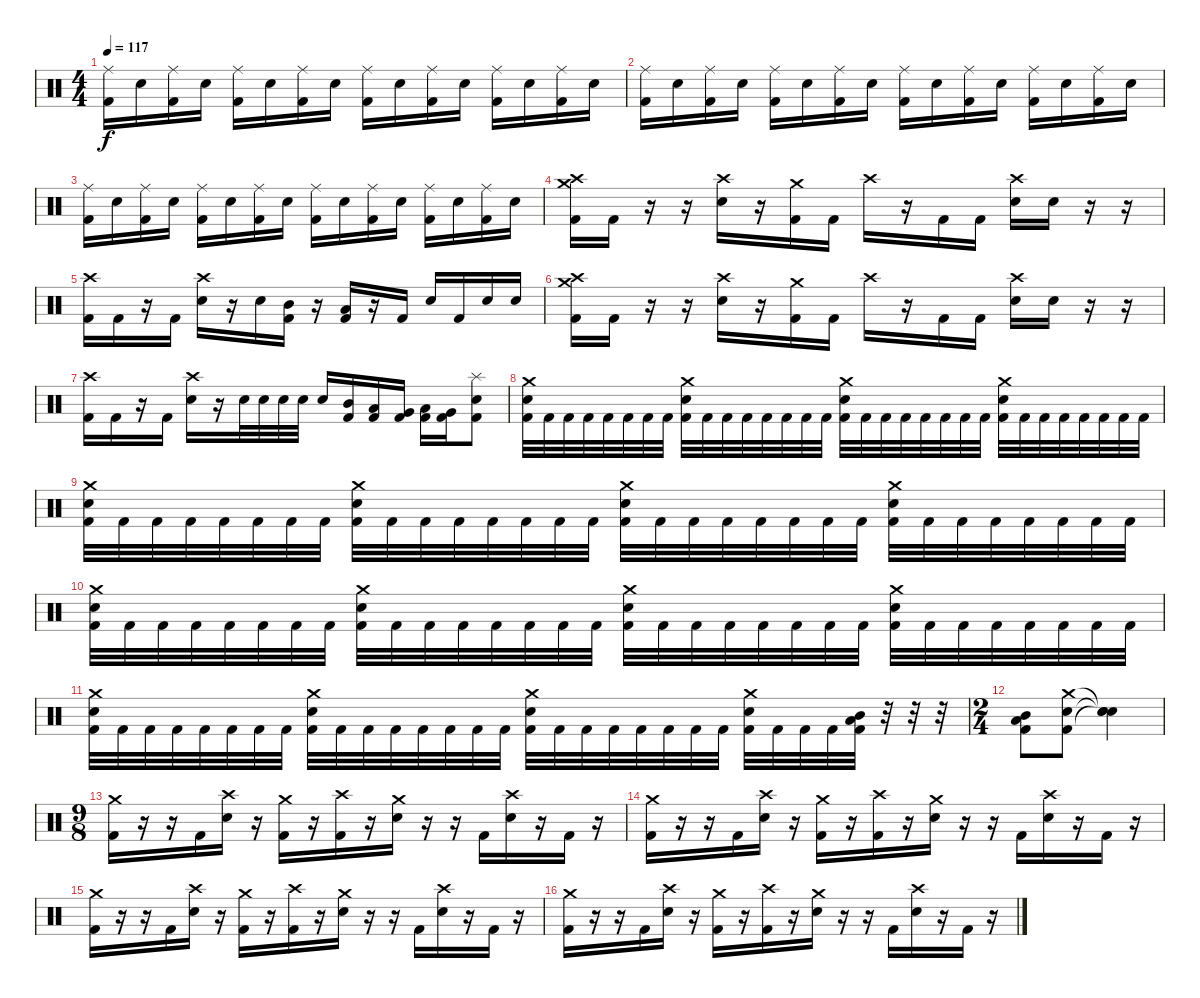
\track "" {instrument percussion}
\staff {score}
\articulation defaults
\ts (4 4)
\tempo 117
\clef neutral
\ks c
("Kick (hit) 2" "Ride (middle)").16{dy f} "Electric Snare (hit)".16 ("Kick (hit) 2" "Ride (middle)").16 "Electric Snare (hit)".16 ("Kick (hit) 2" "Ride (middle)").16 "Electric Snare (hit)".16 ("Kick (hit) 2" "Ride (middle)").16 "Electric Snare (hit)".16 ("Kick (hit) 2" "Ride (middle)").16 "Electric Snare (hit)".16 ("Kick (hit) 2" "Ride (middle)").16 "Electric Snare (hit)".16 ("Kick (hit) 2" "Ride (middle)").16 "Electric Snare (hit)".16 ("Kick (hit) 2" "Ride (middle)").16 "Electric Snare (hit)".16 |
("Kick (hit) 2" "Ride (middle)").16 "Electric Snare (hit)".16 ("Kick (hit) 2" "Ride (middle)").16 "Electric Snare (hit)".16 ("Kick (hit) 2" "Ride (middle)").16 "Electric Snare (hit)".16 ("Kick (hit) 2" "Ride (middle)").16 "Electric Snare (hit)".16 ("Kick (hit) 2" "Ride (middle)").16 "Electric Snare (hit)".16 ("Kick (hit) 2" "Ride (middle)").16 "Electric Snare (hit)".16 ("Kick (hit) 2" "Ride (middle)").16 "Electric Snare (hit)".16 ("Kick (hit) 2" "Ride (middle)").16 "Electric Snare (hit)".16 |
("Kick (hit) 2" "Ride (middle)").16 "Electric Snare (hit)".16 ("Kick (hit) 2" "Ride (middle)").16 "Electric Snare (hit)".16 ("Kick (hit) 2" "Ride (middle)").16 "Electric Snare (hit)".16 ("Kick (hit) 2" "Ride (middle)").16 "Electric Snare (hit)".16 ("Kick (hit) 2" "Ride (middle)").16 "Electric Snare (hit)".16 ("Kick (hit) 2" "Ride (middle)").16 "Electric Snare (hit)".16 ("Kick (hit) 2" "Ride (middle)").16 "Electric Snare (hit)".16 ("Kick (hit) 2" "Ride (middle)").16 "Electric Snare (hit)".16 |
("Kick (hit) 2" "Crash high (hit)" "Crash medium (hit)").16 "Kick (hit) 2".16 r.16 r.16 ("Electric Snare (hit)" "Crash high (hit)").16 r.16 ("Kick (hit) 2" "Crash medium (hit)").16 "Kick (hit) 2".16 "Crash high (hit)".16 r.16 "Kick (hit) 2".16 "Kick (hit) 2".16 ("Electric Snare (hit)" "Crash high (hit)").16 "Electric Snare (hit)".16 r.16 r.16 |
("Kick (hit) 2" "Crash high (hit)").16 "Kick (hit) 2".16 r.16 "Kick (hit) 2".16 ("Electric Snare (hit)" "Crash high (hit)").16 r.16 "Electric Snare (hit)".16 ("Mid Tom (hit)" "Kick (hit) 2").16 r.16 ("Low Tom (hit)" "Kick (hit) 2").16 r.16 "Kick (hit) 2".16 "Electric Snare (hit)".16 "Kick (hit) 2".16 "Electric Snare (hit)".16 "Electric Snare (hit)".16 |
("Kick (hit) 2" "Crash high (hit)" "Crash medium (hit)").16 "Kick (hit) 2".16 r.16 r.16 ("Electric Snare (hit)" "Crash high (hit)").16 r.16 ("Kick (hit) 2" "Crash medium (hit)").16 "Kick (hit) 2".16 "Crash high (hit)".16 r.16 "Kick (hit) 2".16 "Kick (hit) 2".16 ("Electric Snare (hit)" "Crash high (hit)").16 "Electric Snare (hit)".16 r.16 r.16 |
("Kick (hit) 2" "Crash high (hit)").16 "Kick (hit) 2".16 r.16 "Kick (hit) 2".16 ("Electric Snare (hit)" "Crash high (hit)").16 r.16 "Electric Snare (hit)".32 "Electric Snare (hit)".32 "Electric Snare (hit)".32 "Electric Snare (hit)".32 "Electric Snare (hit)".16 ("Kick (hit) 2" "Mid Tom (hit)").16 ("Kick (hit) 2" "Low Tom (hit)").16 ("Kick (hit) 2" "Very Low Tom (hit)").16 ("Kick (hit) 2" "Low Tom (hit)").16 ("Kick (hit) 2" "Very Low Tom (hit)").16 ("Kick (hit) 2" "Electric Snare (hit)" "Splash (hit)").8 |
("Kick (hit) 2" "Electric Snare (hit)" "Crash medium (hit)").32 "Kick (hit) 2".32 "Kick (hit) 2".32 "Kick (hit) 2".32 "Kick (hit) 2".32 "Kick (hit) 2".32 "Kick (hit) 2".32 "Kick (hit) 2".32 ("Kick (hit) 2" "Electric Snare (hit)" "Crash medium (hit)").32 "Kick (hit) 2".32 "Kick (hit) 2".32 "Kick (hit) 2".32 "Kick (hit) 2".32 "Kick (hit) 2".32 "Kick (hit) 2".32 "Kick (hit) 2".32 ("Kick (hit) 2" "Electric Snare (hit)" "Crash medium (hit)").32 "Kick (hit) 2".32 "Kick (hit) 2".32 "Kick (hit) 2".32 "Kick (hit) 2".32 "Kick (hit) 2".32 "Kick (hit) 2".32 "Kick (hit) 2".32 ("Kick (hit) 2" "Electric Snare (hit)" "Crash medium (hit)").32 "Kick (hit) 2".32 "Kick (hit) 2".32 "Kick (hit) 2".32 "Kick (hit) 2".32 "Kick (hit) 2".32 "Kick (hit) 2".32 "Kick (hit) 2".32 |
("Kick (hit) 2" "Electric Snare (hit)" "Crash medium (hit)").32 "Kick (hit) 2".32 "Kick (hit) 2".32 "Kick (hit) 2".32 "Kick (hit) 2".32 "Kick (hit) 2".32 "Kick (hit) 2".32 "Kick (hit) 2".32 ("Kick (hit) 2" "Electric Snare (hit)" "Crash medium (hit)").32 "Kick (hit) 2".32 "Kick (hit) 2".32 "Kick (hit) 2".32 "Kick (hit) 2".32 "Kick (hit) 2".32 "Kick (hit) 2".32 "Kick (hit) 2".32 ("Kick (hit) 2" "Electric Snare (hit)" "Crash medium (hit)").32 "Kick (hit) 2".32 "Kick (hit) 2".32 "Kick (hit) 2".32 "Kick (hit) 2".32 "Kick (hit) 2".32 "Kick (hit) 2".32 "Kick (hit) 2".32 ("Kick (hit) 2" "Electric Snare (hit)" "Crash medium (hit)").32 "Kick (hit) 2".32 "Kick (hit) 2".32 "Kick (hit) 2".32 "Kick (hit) 2".32 "Kick (hit) 2".32 "Kick (hit) 2".32 "Kick (hit) 2".32 |
("Kick (hit) 2" "Electric Snare (hit)" "Crash medium (hit)").32 "Kick (hit) 2".32 "Kick (hit) 2".32 "Kick (hit) 2".32 "Kick (hit) 2".32 "Kick (hit) 2".32 "Kick (hit) 2".32 "Kick (hit) 2".32 ("Kick (hit) 2" "Electric Snare (hit)" "Crash medium (hit)").32 "Kick (hit) 2".32 "Kick (hit) 2".32 "Kick (hit) 2".32 "Kick (hit) 2".32 "Kick (hit) 2".32 "Kick (hit) 2".32 "Kick (hit) 2".32 ("Kick (hit) 2" "Electric Snare (hit)" "Crash medium (hit)").32 "Kick (hit) 2".32 "Kick (hit) 2".32 "Kick (hit) 2".32 "Kick (hit) 2".32 "Kick (hit) 2".32 "Kick (hit) 2".32 "Kick (hit) 2".32 ("Kick (hit) 2" "Electric Snare (hit)" "Crash medium (hit)").32 "Kick (hit) 2".32 "Kick (hit) 2".32 "Kick (hit) 2".32 "Kick (hit) 2".32 "Kick (hit) 2".32 "Kick (hit) 2".32 "Kick (hit) 2".32 |
("Kick (hit) 2" "Electric Snare (hit)" "Crash medium (hit)").32 "Kick (hit) 2".32 "Kick (hit) 2".32 "Kick (hit) 2".32 "Kick (hit) 2".32 "Kick (hit) 2".32 "Kick (hit) 2".32 "Kick (hit) 2".32 ("Kick (hit) 2" "Electric Snare (hit)" "Crash medium (hit)").32 "Kick (hit) 2".32 "Kick (hit) 2".32 "Kick (hit) 2".32 "Kick (hit) 2".32 "Kick (hit) 2".32 "Kick (hit) 2".32 "Kick (hit) 2".32 ("Kick (hit) 2" "Electric Snare (hit)" "Crash medium (hit)").32 "Kick (hit) 2".32 "Kick (hit) 2".32 "Kick (hit) 2".32 "Kick (hit) 2".32 "Kick (hit) 2".32 "Kick (hit) 2".32 "Kick (hit) 2".32 ("Kick (hit) 2" "Electric Snare (hit)" "Crash medium (hit)").32 "Kick (hit) 2".32 "Kick (hit) 2".32 "Kick (hit) 2".32 ("Kick (hit) 2" "Mid Tom (hit)" "Low Tom (hit)").32 r.32 r.32 r.32 |
\ts (2 4)
("Kick (hit) 2" "Mid Tom (hit)" "Low Tom (hit)").8 ("Electric Snare (hit)" "Kick (hit) 2" "Crash medium (hit)").8 ("Snare (hit)"{t} "Snare (hit)"{t} "Snare (hit)"{t}).4 |
\ts (9 8)
("Kick (hit) 2" "Crash medium (hit)").16 r.16 r.16 "Kick (hit) 2".16 ("Electric Snare (hit)" "Crash high (hit)").16 r.16 ("Kick (hit) 2" "Crash medium (hit)").16 r.16 ("Kick (hit) 2" "Crash high (hit)").16 r.16 ("Electric Snare (hit)" "Crash medium (hit)").16 r.16 r.16 "Kick (hit) 2".16 ("Electric Snare (hit)" "Crash high (hit)").16 r.16 "Kick (hit) 2".16 r.16 |
("Kick (hit) 2" "Crash medium (hit)").16 r.16 r.16 "Kick (hit) 2".16 ("Electric Snare (hit)" "Crash high (hit)").16 r.16 ("Kick (hit) 2" "Crash medium (hit)").16 r.16 ("Kick (hit) 2" "Crash high (hit)").16 r.16 ("Electric Snare (hit)" "Crash medium (hit)").16 r.16 r.16 "Kick (hit) 2".16 ("Electric Snare (hit)" "Crash high (hit)").16 r.16 "Kick (hit) 2".16 r.16 |
("Kick (hit) 2" "Crash medium (hit)").16 r.16 r.16 "Kick (hit) 2".16 ("Electric Snare (hit)" "Crash high (hit)").16 r.16 ("Kick (hit) 2" "Crash medium (hit)").16 r.16 ("Kick (hit) 2" "Crash high (hit)").16 r.16 ("Electric Snare (hit)" "Crash medium (hit)").16 r.16 r.16 "Kick (hit) 2".16 ("Electric Snare (hit)" "Crash high (hit)").16 r.16 "Kick (hit) 2".16 r.16 |
("Kick (hit) 2" "Crash medium (hit)").16 r.16 r.16 "Kick (hit) 2".16 ("Electric Snare (hit)" "Crash high (hit)").16 r.16 ("Kick (hit) 2" "Crash medium (hit)").16 r.16 ("Kick (hit) 2" "Crash high (hit)").16 r.16 ("Electric Snare (hit)" "Crash medium (hit)").16 r.16 r.16 "Kick (hit) 2".16 ("Electric Snare (hit)" "Crash high (hit)").16 r.16 "Kick (hit) 2".16 r.16
